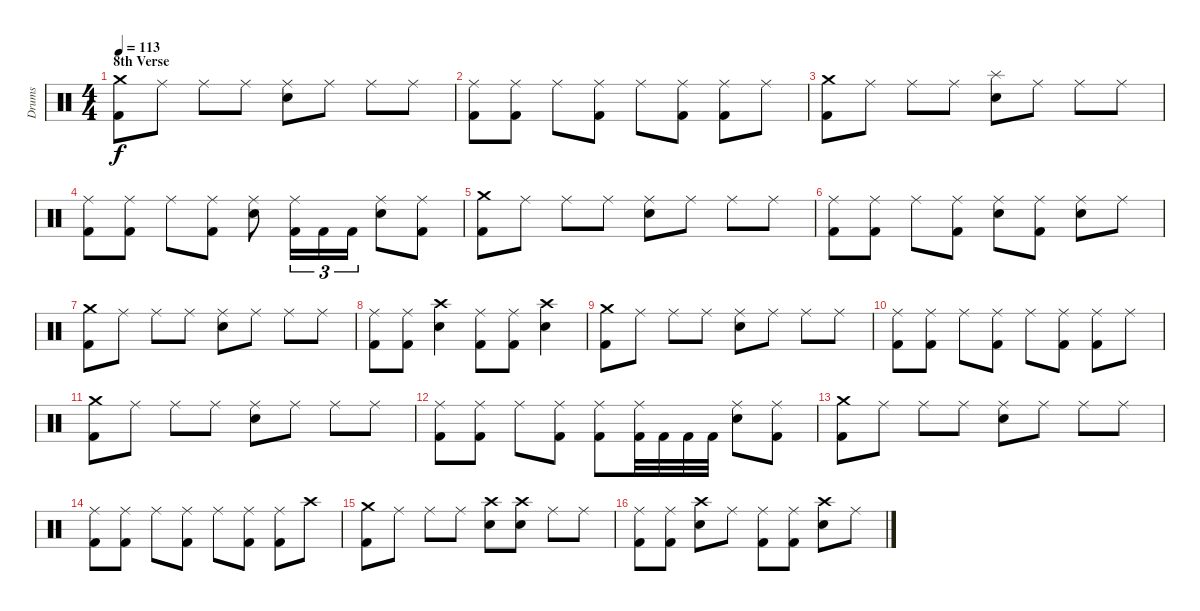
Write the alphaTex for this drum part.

\track ("Drums" "Drums") {instrument percussion}
\staff {score}
\articulation defaults
\ts (4 4)
\section ("" "8th Verse")
\tempo 113
\clef neutral
\ks c
("Kick (hit) 2" "Crash medium (hit)").8{dy f} "Ride (middle)".8 "Ride (middle)".8 "Ride (middle)".8 ("Electric Snare (hit)" "Ride (middle)").8 "Ride (middle)".8 "Ride (middle)".8 "Ride (middle)".8 |
("Kick (hit) 2" "Ride (middle)").8 ("Kick (hit) 2" "Ride (middle)").8 "Ride (middle)".8 ("Kick (hit) 2" "Ride (middle)").8 "Ride (middle)".8 ("Kick (hit) 2" "Ride (middle)").8 ("Kick (hit) 2" "Ride (middle)").8 "Ride (middle)".8 |
("Kick (hit) 2" "Crash medium (hit)").8 "Ride (middle)".8 "Ride (middle)".8 "Ride (middle)".8 ("Electric Snare (hit)" "Splash (hit)").8 "Ride (middle)".8 "Ride (middle)".8 "Ride (middle)".8 |
("Kick (hit) 2" "Ride (middle)").8 ("Kick (hit) 2" "Ride (middle)").8 "Ride (middle)".8 ("Kick (hit) 2" "Ride (middle)").8 ("Electric Snare (hit)" "Ride (middle)").8 ("Kick (hit) 2" "Ride (middle)").16{tu (3 2)} "Kick (hit) 2".16{tu (3 2)} "Kick (hit) 2".16{tu (3 2)} ("Electric Snare (hit)" "Ride (middle)").8 ("Kick (hit) 2" "Ride (middle)").8 |
("Kick (hit) 2" "Crash medium (hit)").8 "Ride (middle)".8 "Ride (middle)".8 "Ride (middle)".8 ("Electric Snare (hit)" "Ride (middle)").8 "Ride (middle)".8 "Ride (middle)".8 "Ride (middle)".8 |
("Kick (hit) 2" "Ride (middle)").8 ("Kick (hit) 2" "Ride (middle)").8 "Ride (middle)".8 ("Kick (hit) 2" "Ride (middle)").8 ("Electric Snare (hit)" "Ride (middle)").8 ("Kick (hit) 2" "Ride (middle)").8 ("Electric Snare (hit)" "Ride (middle)").8 "Ride (middle)".8 |
("Kick (hit) 2" "Crash medium (hit)").8 "Ride (middle)".8 "Ride (middle)".8 "Ride (middle)".8 ("Electric Snare (hit)" "Ride (middle)").8 "Ride (middle)".8 "Ride (middle)".8 "Ride (middle)".8 |
("Kick (hit) 2" "Ride (middle)").8 ("Kick (hit) 2" "Ride (middle)").8 ("Electric Snare (hit)" "Crash high (hit)").4 ("Kick (hit) 2" "Ride (middle)").8 ("Kick (hit) 2" "Ride (middle)").8 ("Electric Snare (hit)" "Crash high (hit)").4 |
("Kick (hit) 2" "Crash medium (hit)").8 "Ride (middle)".8 "Ride (middle)".8 "Ride (middle)".8 ("Electric Snare (hit)" "Ride (middle)").8 "Ride (middle)".8 "Ride (middle)".8 "Ride (middle)".8 |
("Kick (hit) 2" "Ride (middle)").8 ("Kick (hit) 2" "Ride (middle)").8 "Ride (middle)".8 ("Kick (hit) 2" "Ride (middle)").8 "Ride (middle)".8 ("Kick (hit) 2" "Ride (middle)").8 ("Kick (hit) 2" "Ride (middle)").8 "Ride (middle)".8 |
("Kick (hit) 2" "Crash medium (hit)").8 "Ride (middle)".8 "Ride (middle)".8 "Ride (middle)".8 ("Electric Snare (hit)" "Ride (middle)").8 "Ride (middle)".8 "Ride (middle)".8 "Ride (middle)".8 |
("Kick (hit) 2" "Ride (middle)").8 ("Kick (hit) 2" "Ride (middle)").8 "Ride (middle)".8 ("Kick (hit) 2" "Ride (middle)").8 ("Kick (hit) 2" "Ride (middle)").8 ("Kick (hit) 2" "Ride (middle)").32 "Kick (hit) 2".32 "Kick (hit) 2".32 "Kick (hit) 2".32 ("Electric Snare (hit)" "Ride (middle)").8 ("Kick (hit) 2" "Ride (middle)").8 |
("Kick (hit) 2" "Crash medium (hit)").8 "Ride (middle)".8 "Ride (middle)".8 "Ride (middle)".8 ("Electric Snare (hit)" "Ride (middle)").8 "Ride (middle)".8 "Ride (middle)".8 "Ride (middle)".8 |
("Kick (hit) 2" "Ride (middle)").8 ("Kick (hit) 2" "Ride (middle)").8 "Ride (middle)".8 ("Kick (hit) 2" "Ride (middle)").8 "Ride (middle)".8 ("Kick (hit) 2" "Ride (middle)").8 ("Kick (hit) 2" "Ride (middle)").8 "Crash high (hit)".8 |
("Kick (hit) 2" "Crash medium (hit)").8 "Ride (middle)".8 "Ride (middle)".8 "Ride (middle)".8 ("Electric Snare (hit)" "Crash high (hit)").8 ("Electric Snare (hit)" "Crash high (hit)").8 "Ride (middle)".8 "Ride (middle)".8 |
("Kick (hit) 2" "Ride (middle)").8 ("Kick (hit) 2" "Ride (middle)").8 ("Electric Snare (hit)" "Crash high (hit)").8 "Ride (middle)".8 ("Kick (hit) 2" "Ride (middle)").8 ("Kick (hit) 2" "Ride (middle)").8 ("Electric Snare (hit)" "Crash high (hit)").8 "Ride (middle)".8
